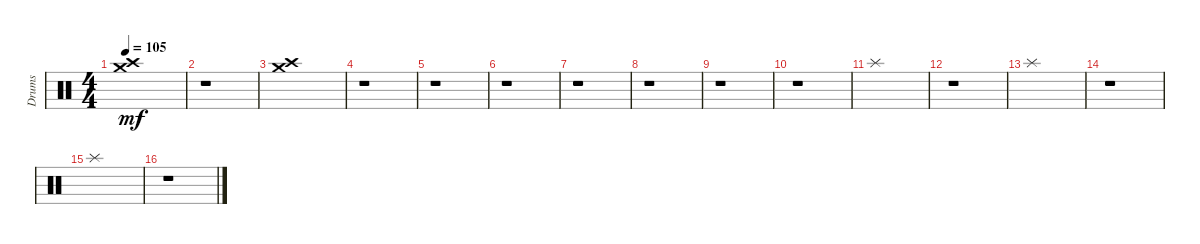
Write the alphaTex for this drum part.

\track ("Drums" "Drums") {instrument percussion}
\staff {score}
\articulation defaults
\ts (4 4)
\tempo 105
\clef neutral
\ks c
("Crash high (hit)" "Crash medium (hit)").1{dy mf} |
r.1 |
("Crash high (hit)" "Crash medium (hit)").1 |
r.1 |
r.1 |
r.1 |
r.1 |
r.1 |
r.1 |
r.1 |
"Splash (hit)".1 |
r.1 |
"Splash (hit)".1 |
r.1 |
"Splash (hit)".1 |
r.1
